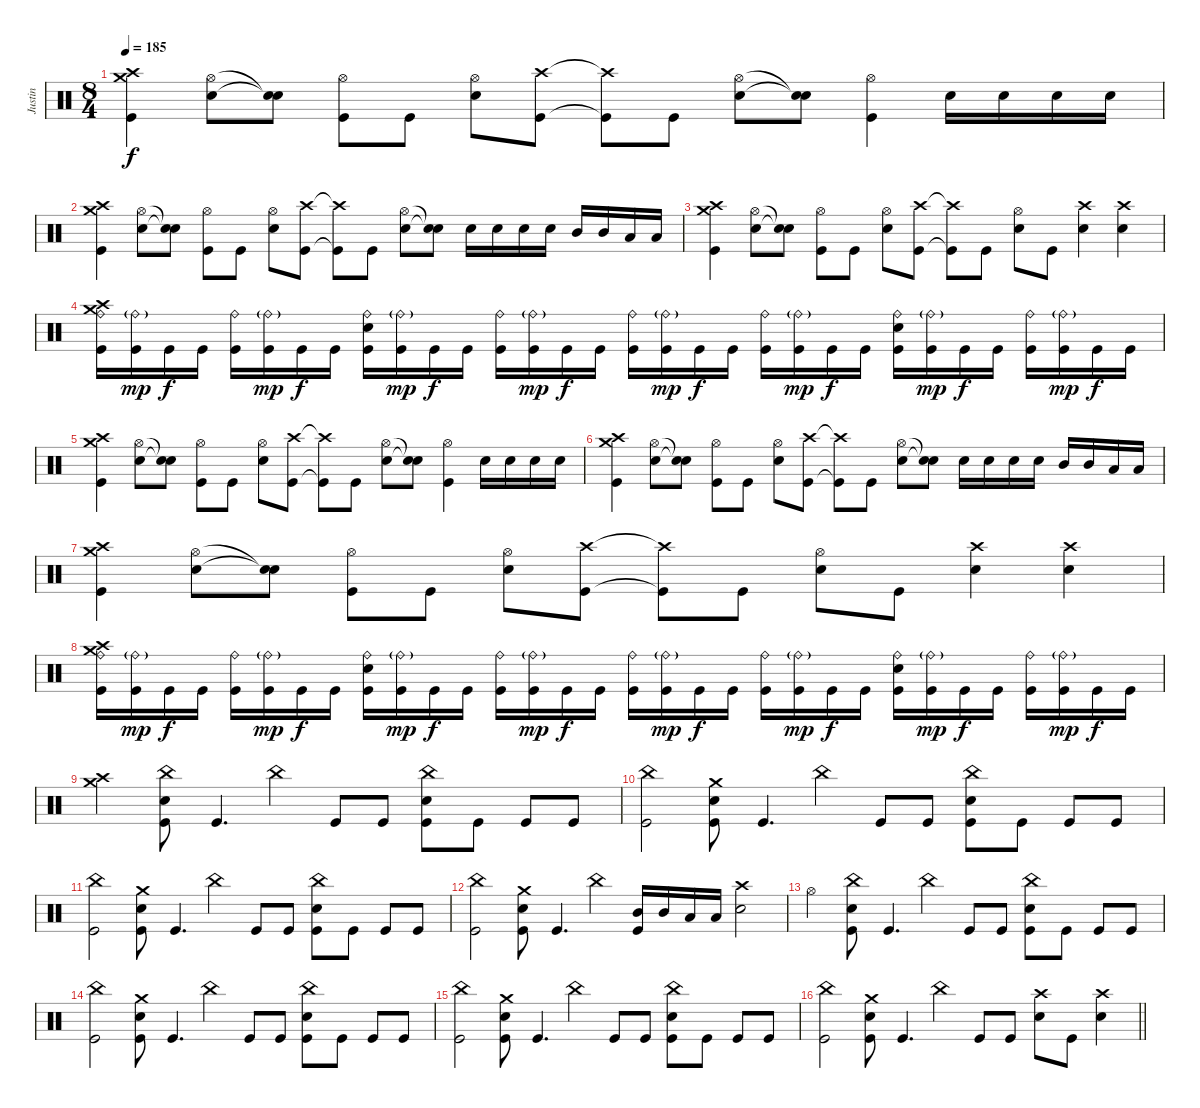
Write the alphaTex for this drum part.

\track ("Justin" "Justin") {instrument percussion}
\staff {score}
\articulation defaults
\ts (8 4)
\tempo 185
\clef neutral
\ks c
("Crash high (hit)" "Crash medium (hit)" "Kick (hit)").4{dy f} ("Hi-Hat (open)" "Electric Snare (hit)").8 ("Snare (hit)"{t} "Snare (hit)"{t}).8 ("Hi-Hat (open)" "Kick (hit)").8 "Kick (hit)".8 ("Hi-Hat (open)" "Electric Snare (hit)").8 ("Crash high (hit)" "Kick (hit)").8 ("Crash high (hit)"{t} "Kick (hit)"{t}).8 "Kick (hit)".8 ("Hi-Hat (open)" "Electric Snare (hit)").8 ("Snare (hit)"{t} "Snare (hit)"{t}).8 ("Hi-Hat (open)" "Kick (hit)").4 "Electric Snare (hit)".16 "Electric Snare (hit)".16 "Electric Snare (hit)".16 "Electric Snare (hit)".16 |
("Crash high (hit)" "Crash medium (hit)" "Kick (hit)").4 ("Hi-Hat (open)" "Electric Snare (hit)").8 ("Snare (hit)"{t} "Snare (hit)"{t}).8 ("Hi-Hat (open)" "Kick (hit)").8 "Kick (hit)".8 ("Hi-Hat (open)" "Electric Snare (hit)").8 ("Crash high (hit)" "Kick (hit)").8 ("Crash high (hit)"{t} "Kick (hit)"{t}).8 "Kick (hit)".8 ("Hi-Hat (open)" "Electric Snare (hit)").8 ("Snare (hit)"{t} "Snare (hit)"{t}).8 "Electric Snare (hit)".16 "Electric Snare (hit)".16 "Electric Snare (hit)".16 "Electric Snare (hit)".16 "Mid Tom (hit)".16 "Mid Tom (hit)".16 "Low Tom (hit)".16 "Low Tom (hit)".16 |
("Crash high (hit)" "Crash medium (hit)" "Kick (hit)").4 ("Hi-Hat (open)" "Electric Snare (hit)").8 ("Snare (hit)"{t} "Snare (hit)"{t}).8 ("Hi-Hat (open)" "Kick (hit)").8 "Kick (hit)".8 ("Hi-Hat (open)" "Electric Snare (hit)").8 ("Crash high (hit)" "Kick (hit)").8 ("Crash high (hit)"{t} "Kick (hit)"{t}).8 "Kick (hit)".8 ("Hi-Hat (open)" "Electric Snare (hit)").8 "Kick (hit)".8 ("Crash high (hit)" "Electric Snare (hit)").4 ("Crash high (hit)" "Electric Snare (hit)").4 |
("Crash high (hit)" "Crash medium (hit)" "Ride (bell)" "Kick (hit)").16 ("Ride (bell)"{g} "Kick (hit)").16{dy mp} "Kick (hit)".16{dy f} "Kick (hit)".16 ("Ride (bell)" "Kick (hit)").16 ("Ride (bell)"{g} "Kick (hit)").16{dy mp} "Kick (hit)".16{dy f} "Kick (hit)".16 ("Ride (bell)" "Electric Snare (hit)" "Kick (hit)").16 ("Ride (bell)"{g} "Kick (hit)").16{dy mp} "Kick (hit)".16{dy f} "Kick (hit)".16 ("Ride (bell)" "Kick (hit)").16 ("Ride (bell)"{g} "Kick (hit)").16{dy mp} "Kick (hit)".16{dy f} "Kick (hit)".16 ("Ride (bell)" "Kick (hit)").16 ("Ride (bell)"{g} "Kick (hit)").16{dy mp} "Kick (hit)".16{dy f} "Kick (hit)".16 ("Ride (bell)" "Kick (hit)").16 ("Ride (bell)"{g} "Kick (hit)").16{dy mp} "Kick (hit)".16{dy f} "Kick (hit)".16 ("Ride (bell)" "Electric Snare (hit)" "Kick (hit)").16 ("Ride (bell)"{g} "Kick (hit)").16{dy mp} "Kick (hit)".16{dy f} "Kick (hit)".16 ("Ride (bell)" "Kick (hit)").16 ("Ride (bell)"{g} "Kick (hit)").16{dy mp} "Kick (hit)".16{dy f} "Kick (hit)".16 |
("Crash high (hit)" "Crash medium (hit)" "Kick (hit)").4 ("Hi-Hat (open)" "Electric Snare (hit)").8 ("Snare (hit)"{t} "Snare (hit)"{t}).8 ("Hi-Hat (open)" "Kick (hit)").8 "Kick (hit)".8 ("Hi-Hat (open)" "Electric Snare (hit)").8 ("Crash high (hit)" "Kick (hit)").8 ("Crash high (hit)"{t} "Kick (hit)"{t}).8 "Kick (hit)".8 ("Hi-Hat (open)" "Electric Snare (hit)").8 ("Snare (hit)"{t} "Snare (hit)"{t}).8 ("Hi-Hat (open)" "Kick (hit)").4 "Electric Snare (hit)".16 "Electric Snare (hit)".16 "Electric Snare (hit)".16 "Electric Snare (hit)".16 |
("Crash high (hit)" "Crash medium (hit)" "Kick (hit)").4 ("Hi-Hat (open)" "Electric Snare (hit)").8 ("Snare (hit)"{t} "Snare (hit)"{t}).8 ("Hi-Hat (open)" "Kick (hit)").8 "Kick (hit)".8 ("Hi-Hat (open)" "Electric Snare (hit)").8 ("Crash high (hit)" "Kick (hit)").8 ("Crash high (hit)"{t} "Kick (hit)"{t}).8 "Kick (hit)".8 ("Hi-Hat (open)" "Electric Snare (hit)").8 ("Snare (hit)"{t} "Snare (hit)"{t}).8 "Electric Snare (hit)".16 "Electric Snare (hit)".16 "Electric Snare (hit)".16 "Electric Snare (hit)".16 "Mid Tom (hit)".16 "Mid Tom (hit)".16 "Low Tom (hit)".16 "Low Tom (hit)".16 |
("Crash high (hit)" "Crash medium (hit)" "Kick (hit)").4 ("Hi-Hat (open)" "Electric Snare (hit)").8 ("Snare (hit)"{t} "Snare (hit)"{t}).8 ("Hi-Hat (open)" "Kick (hit)").8 "Kick (hit)".8 ("Hi-Hat (open)" "Electric Snare (hit)").8 ("Crash high (hit)" "Kick (hit)").8 ("Crash high (hit)"{t} "Kick (hit)"{t}).8 "Kick (hit)".8 ("Hi-Hat (open)" "Electric Snare (hit)").8 "Kick (hit)".8 ("Crash high (hit)" "Electric Snare (hit)").4 ("Crash high (hit)" "Electric Snare (hit)").4 |
("Crash high (hit)" "Crash medium (hit)" "Ride (bell)" "Kick (hit)").16 ("Ride (bell)"{g} "Kick (hit)").16{dy mp} "Kick (hit)".16{dy f} "Kick (hit)".16 ("Ride (bell)" "Kick (hit)").16 ("Ride (bell)"{g} "Kick (hit)").16{dy mp} "Kick (hit)".16{dy f} "Kick (hit)".16 ("Ride (bell)" "Electric Snare (hit)" "Kick (hit)").16 ("Ride (bell)"{g} "Kick (hit)").16{dy mp} "Kick (hit)".16{dy f} "Kick (hit)".16 ("Ride (bell)" "Kick (hit)").16 ("Ride (bell)"{g} "Kick (hit)").16{dy mp} "Kick (hit)".16{dy f} "Kick (hit)".16 ("Ride (bell)" "Kick (hit)").16 ("Ride (bell)"{g} "Kick (hit)").16{dy mp} "Kick (hit)".16{dy f} "Kick (hit)".16 ("Ride (bell)" "Kick (hit)").16 ("Ride (bell)"{g} "Kick (hit)").16{dy mp} "Kick (hit)".16{dy f} "Kick (hit)".16 ("Ride (bell)" "Electric Snare (hit)" "Kick (hit)").16 ("Ride (bell)"{g} "Kick (hit)").16{dy mp} "Kick (hit)".16{dy f} "Kick (hit)".16 ("Ride (bell)" "Kick (hit)").16 ("Ride (bell)"{g} "Kick (hit)").16{dy mp} "Kick (hit)".16{dy f} "Kick (hit)".16 |
("Crash high (hit)" "Crash medium (hit)").2 ("China (hit)" "Electric Snare (hit)" "Kick (hit)").8 "Kick (hit)".4{d} "China (hit)".4 "Kick (hit)".8 "Kick (hit)".8 ("China (hit)" "Electric Snare (hit)" "Kick (hit)").8 "Kick (hit)".8 "Kick (hit)".8 "Kick (hit)".8 |
("China (hit)" "Kick (hit)").2 ("Crash medium (hit)" "Electric Snare (hit)" "Kick (hit)").8 "Kick (hit)".4{d} "China (hit)".4 "Kick (hit)".8 "Kick (hit)".8 ("China (hit)" "Electric Snare (hit)" "Kick (hit)").8 "Kick (hit)".8 "Kick (hit)".8 "Kick (hit)".8 |
("China (hit)" "Kick (hit)").2 ("Crash medium (hit)" "Electric Snare (hit)" "Kick (hit)").8 "Kick (hit)".4{d} "China (hit)".4 "Kick (hit)".8 "Kick (hit)".8 ("China (hit)" "Electric Snare (hit)" "Kick (hit)").8 "Kick (hit)".8 "Kick (hit)".8 "Kick (hit)".8 |
("China (hit)" "Kick (hit)").2 ("Crash medium (hit)" "Electric Snare (hit)" "Kick (hit)").8 "Kick (hit)".4{d} "China (hit)".4 ("Mid Tom (hit)" "Kick (hit)").16 "Mid Tom (hit)".16 "Low Tom (hit)".16 "Low Tom (hit)".16 ("Crash high (hit)" "Electric Snare (hit)").2 |
"Hi-Hat (open)".2 ("China (hit)" "Electric Snare (hit)" "Kick (hit)").8 "Kick (hit)".4{d} "China (hit)".4 "Kick (hit)".8 "Kick (hit)".8 ("China (hit)" "Electric Snare (hit)" "Kick (hit)").8 "Kick (hit)".8 "Kick (hit)".8 "Kick (hit)".8 |
("China (hit)" "Kick (hit)").2 ("Crash medium (hit)" "Electric Snare (hit)" "Kick (hit)").8 "Kick (hit)".4{d} "China (hit)".4 "Kick (hit)".8 "Kick (hit)".8 ("China (hit)" "Electric Snare (hit)" "Kick (hit)").8 "Kick (hit)".8 "Kick (hit)".8 "Kick (hit)".8 |
("China (hit)" "Kick (hit)").2 ("Crash medium (hit)" "Electric Snare (hit)" "Kick (hit)").8 "Kick (hit)".4{d} "China (hit)".4 "Kick (hit)".8 "Kick (hit)".8 ("China (hit)" "Electric Snare (hit)" "Kick (hit)").8 "Kick (hit)".8 "Kick (hit)".8 "Kick (hit)".8 |
\barLineRight lightlight
("China (hit)" "Kick (hit)").2 ("Crash medium (hit)" "Electric Snare (hit)" "Kick (hit)").8 "Kick (hit)".4{d} "China (hit)".4 "Kick (hit)".8 "Kick (hit)".8 ("Crash high (hit)" "Electric Snare (hit)").8 "Kick (hit)".8 ("Crash high (hit)" "Electric Snare (hit)").4
